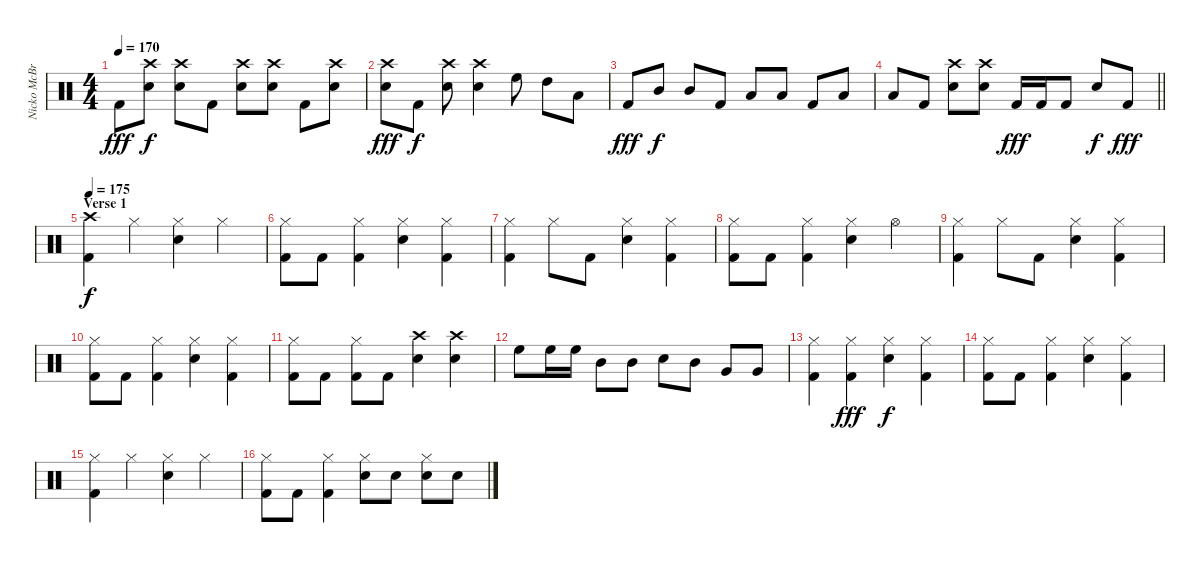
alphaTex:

\track ("Nicko McBrian" "Nicko McBr") {instrument percussion}
\staff {score}
\articulation defaults
\ts (4 4)
\tempo 170
\clef neutral
\ks c "Kick (hit) 2".8{dy fff}
("Crash high (hit)" "Electric Snare (hit)").8{dy f} ("Crash high (hit)" "Electric Snare (hit)").8 "Kick (hit) 2".8 ("Crash high (hit)" "Electric Snare (hit)").8 ("Crash high (hit)" "Electric Snare (hit)").8 "Kick (hit) 2".8 ("Crash high (hit)" "Electric Snare (hit)").8 |
("Crash high (hit)" "Electric Snare (hit)").8{dy fff} "Kick (hit) 2".8{dy f} ("Crash high (hit)" "Electric Snare (hit)").8 ("Crash high (hit)" "Electric Snare (hit)").4 "High Floor Tom (hit)".8 "High Tom (hit)".8 "Low Floor Tom (hit)".8 |
"Kick (hit) 2".8{dy fff} "Mid Tom (hit)".8{dy f} "Mid Tom (hit)".8 "Kick (hit) 2".8 "Low Tom (hit)".8 "Low Tom (hit)".8 "Kick (hit) 2".8 "Low Floor Tom (hit)".8 |
\barLineRight lightlight "Low Floor Tom (hit)".8 "Kick (hit) 2".8
("Crash high (hit)" "Electric Snare (hit)").8 ("Crash high (hit)" "Electric Snare (hit)").8 "Kick (hit) 2".16{dy fff} "Kick (hit) 2".16 "Kick (hit) 2".8 "Electric Snare (hit)".8{dy f} "Kick (hit) 2".8{dy fff} |
\section ("" "Verse 1")
\tempo 175
("Crash high (hit)" "Kick (hit) 2").4{dy f} "Hi-Hat (closed)".4 ("Hi-Hat (closed)" "Electric Snare (hit)").4 "Hi-Hat (closed)".4 |
("Hi-Hat (closed)" "Kick (hit) 2").8 "Kick (hit) 2".8 ("Hi-Hat (closed)" "Kick (hit) 2").4 ("Hi-Hat (closed)" "Electric Snare (hit)").4 ("Hi-Hat (closed)" "Kick (hit) 2").4 |
("Hi-Hat (closed)" "Kick (hit) 2").4 "Hi-Hat (closed)".8 "Kick (hit) 2".8 ("Hi-Hat (closed)" "Electric Snare (hit)").4 ("Hi-Hat (closed)" "Kick (hit) 2").4 |
("Hi-Hat (closed)" "Kick (hit) 2").8 "Kick (hit) 2".8 ("Hi-Hat (closed)" "Kick (hit) 2").4 ("Hi-Hat (closed)" "Electric Snare (hit)").4 "Hi-Hat (open)".4 |
("Hi-Hat (closed)" "Kick (hit) 2").4 "Hi-Hat (closed)".8 "Kick (hit) 2".8 ("Hi-Hat (closed)" "Electric Snare (hit)").4 ("Hi-Hat (closed)" "Kick (hit) 2").4 |
("Hi-Hat (closed)" "Kick (hit) 2").8 "Kick (hit) 2".8 ("Hi-Hat (closed)" "Kick (hit) 2").4 ("Hi-Hat (closed)" "Electric Snare (hit)").4 ("Hi-Hat (closed)" "Kick (hit) 2").4 |
("Hi-Hat (closed)" "Kick (hit) 2").8 "Kick (hit) 2".8 ("Hi-Hat (closed)" "Kick (hit) 2").8 "Kick (hit) 2".8 ("Crash high (hit)" "Electric Snare (hit)").4 ("Crash high (hit)" "Electric Snare (hit)").4 |
"High Floor Tom (hit)".8 "High Floor Tom (hit)".16 "High Floor Tom (hit)".16 "Mid Tom (hit)".8 "Mid Tom (hit)".8 "Electric Snare (hit)".8 "Mid Tom (hit)".8 "Very Low Tom (hit)".8 "Very Low Tom (hit)".8 |
("Hi-Hat (closed)" "Kick (hit) 2").4 ("Hi-Hat (closed)" "Kick (hit) 2").4{dy fff} ("Hi-Hat (closed)" "Electric Snare (hit)").4{dy f} ("Hi-Hat (closed)" "Kick (hit) 2").4 |
("Hi-Hat (closed)" "Kick (hit) 2").8 "Kick (hit) 2".8 ("Hi-Hat (closed)" "Kick (hit) 2").4 ("Hi-Hat (closed)" "Electric Snare (hit)").4 ("Hi-Hat (closed)" "Kick (hit) 2").4 |
("Hi-Hat (closed)" "Kick (hit) 2").4 "Hi-Hat (closed)".4 ("Hi-Hat (closed)" "Electric Snare (hit)").4 "Hi-Hat (closed)".4 |
("Hi-Hat (closed)" "Kick (hit) 2").8 "Kick (hit) 2".8 ("Hi-Hat (closed)" "Kick (hit) 2").4 ("Hi-Hat (closed)" "Electric Snare (hit)").8 "Electric Snare (hit)".8 ("Hi-Hat (closed)" "Electric Snare (hit)").8 "Electric Snare (hit)".8
